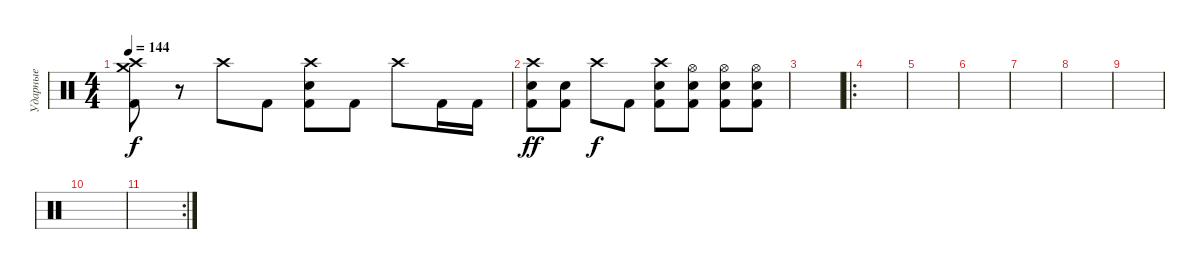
\track ("Ударные" "Ударные") {instrument percussion}
\staff {score}
\articulation defaults
\ts (4 4)
\tempo 144
\clef neutral
\ks c
("Crash high (hit)" "Crash medium (hit)" "Kick (hit) 2").8{dy f} r.8 "Crash high (hit)".8 "Kick (hit) 2".8 ("Crash high (hit)" "Electric Snare (hit)" "Kick (hit) 2").8 "Kick (hit) 2".8 "Crash high (hit)".8 "Kick (hit) 2".16 "Kick (hit) 2".16 |
("Crash high (hit)" "Electric Snare (hit)" "Kick (hit) 2").8{dy ff} ("Electric Snare (hit)" "Kick (hit) 2").8 "Crash high (hit)".8{dy f} "Kick (hit) 2".8 ("Crash high (hit)" "Electric Snare (hit)" "Kick (hit) 2").8 ("Hi-Hat (open)" "Electric Snare (hit)" "Kick (hit) 2").8 ("Hi-Hat (open)" "Electric Snare (hit)" "Kick (hit) 2").8 ("Hi-Hat (open)" "Electric Snare (hit)" "Kick (hit) 2").8 |
|
\ro
|
|
|
|
|
|
|
\rc 2
